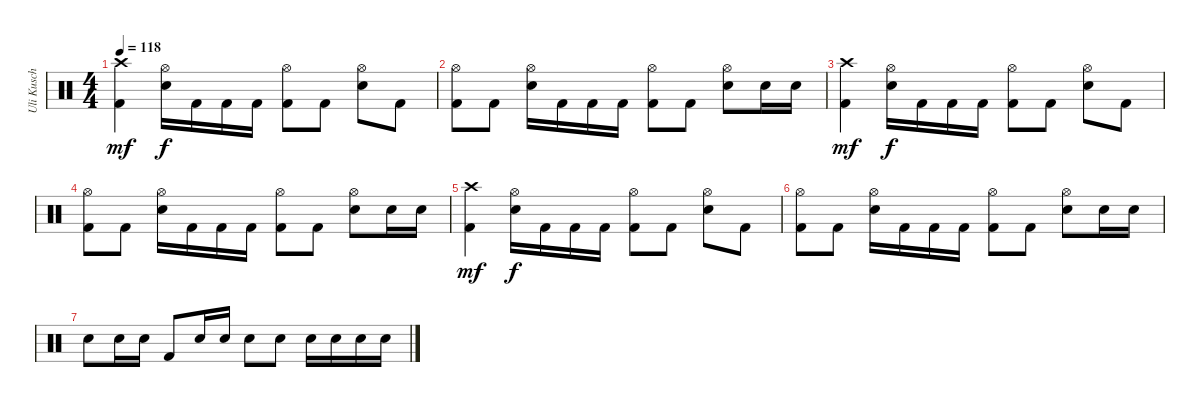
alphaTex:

\track ("Uli Kusch" "Uli Kusch") {instrument percussion}
\staff {score}
\articulation defaults
\ts (4 4)
\tempo 118
\clef neutral
\ks c
("Kick (hit) 2" "Crash high (hit)").4{dy mf} ("Electric Snare (hit)" "Hi-Hat (open)").16{dy f} "Kick (hit) 2".16 "Kick (hit) 2".16 "Kick (hit) 2".16 ("Kick (hit) 2" "Hi-Hat (open)").8 "Kick (hit) 2".8 ("Electric Snare (hit)" "Hi-Hat (open)").8 "Kick (hit) 2".8 |
("Kick (hit) 2" "Hi-Hat (open)").8 "Kick (hit) 2".8 ("Electric Snare (hit)" "Hi-Hat (open)").16 "Kick (hit) 2".16 "Kick (hit) 2".16 "Kick (hit) 2".16 ("Kick (hit) 2" "Hi-Hat (open)").8 "Kick (hit) 2".8 ("Electric Snare (hit)" "Hi-Hat (open)").8 "Electric Snare (hit)".16 "Electric Snare (hit)".16 |
("Kick (hit) 2" "Crash high (hit)").4{dy mf} ("Electric Snare (hit)" "Hi-Hat (open)").16{dy f} "Kick (hit) 2".16 "Kick (hit) 2".16 "Kick (hit) 2".16 ("Kick (hit) 2" "Hi-Hat (open)").8 "Kick (hit) 2".8 ("Electric Snare (hit)" "Hi-Hat (open)").8 "Kick (hit) 2".8 |
("Kick (hit) 2" "Hi-Hat (open)").8 "Kick (hit) 2".8 ("Electric Snare (hit)" "Hi-Hat (open)").16 "Kick (hit) 2".16 "Kick (hit) 2".16 "Kick (hit) 2".16 ("Kick (hit) 2" "Hi-Hat (open)").8 "Kick (hit) 2".8 ("Electric Snare (hit)" "Hi-Hat (open)").8 "Electric Snare (hit)".16 "Electric Snare (hit)".16 |
("Kick (hit) 2" "Crash high (hit)").4{dy mf} ("Electric Snare (hit)" "Hi-Hat (open)").16{dy f} "Kick (hit) 2".16 "Kick (hit) 2".16 "Kick (hit) 2".16 ("Kick (hit) 2" "Hi-Hat (open)").8 "Kick (hit) 2".8 ("Electric Snare (hit)" "Hi-Hat (open)").8 "Kick (hit) 2".8 |
("Kick (hit) 2" "Hi-Hat (open)").8 "Kick (hit) 2".8 ("Electric Snare (hit)" "Hi-Hat (open)").16 "Kick (hit) 2".16 "Kick (hit) 2".16 "Kick (hit) 2".16 ("Kick (hit) 2" "Hi-Hat (open)").8 "Kick (hit) 2".8 ("Electric Snare (hit)" "Hi-Hat (open)").8 "Electric Snare (hit)".16 "Electric Snare (hit)".16 |
"Electric Snare (hit)".8 "Electric Snare (hit)".16 "Electric Snare (hit)".16 "Kick (hit) 2".8 "Electric Snare (hit)".16 "Electric Snare (hit)".16 "Electric Snare (hit)".8 "Electric Snare (hit)".8 "Electric Snare (hit)".16 "Electric Snare (hit)".16 "Electric Snare (hit)".16 "Electric Snare (hit)".16
